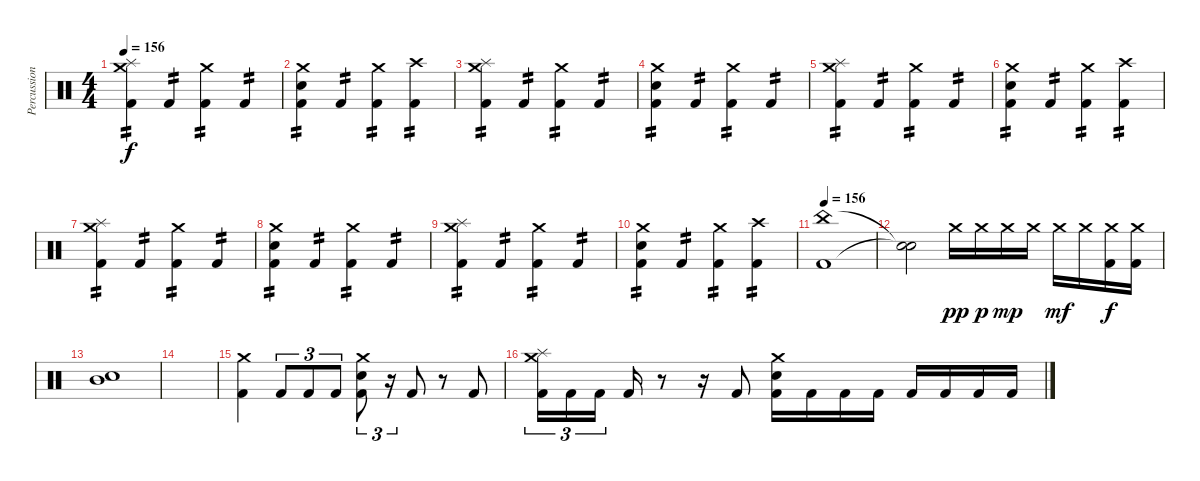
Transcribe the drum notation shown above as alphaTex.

\track ("Percussion" "Percussion") {instrument percussion}
\staff {score}
\articulation defaults
\ts (4 4)
\tempo 156
\clef neutral
\ks c
("Crash medium (hit)" "Splash (hit)" "Kick (hit) 2").4{tp 2 dy f} "Kick (hit) 2".4{tp 2} ("Crash medium (hit)" "Kick (hit) 2").4{tp 2} "Kick (hit) 2".4{tp 2} |
("Crash medium (hit)" "Snare (hit) 2" "Kick (hit) 2").4{tp 2} "Kick (hit) 2".4{tp 2} ("Crash medium (hit)" "Kick (hit) 2").4{tp 2} ("Crash high (hit)" "Kick (hit) 2").4{tp 2} |
("Crash medium (hit)" "Splash (hit)" "Kick (hit) 2").4{tp 2} "Kick (hit) 2".4{tp 2} ("Crash medium (hit)" "Kick (hit) 2").4{tp 2} "Kick (hit) 2".4{tp 2} |
("Crash medium (hit)" "Snare (hit) 2" "Kick (hit) 2").4{tp 2} "Kick (hit) 2".4{tp 2} ("Crash medium (hit)" "Kick (hit) 2").4{tp 2} "Kick (hit) 2".4{tp 2} |
("Crash medium (hit)" "Splash (hit)" "Kick (hit) 2").4{tp 2} "Kick (hit) 2".4{tp 2} ("Crash medium (hit)" "Kick (hit) 2").4{tp 2} "Kick (hit) 2".4{tp 2} |
("Crash medium (hit)" "Snare (hit) 2" "Kick (hit) 2").4{tp 2} "Kick (hit) 2".4{tp 2} ("Crash medium (hit)" "Kick (hit) 2").4{tp 2} ("Crash high (hit)" "Kick (hit) 2").4{tp 2} |
("Crash medium (hit)" "Splash (hit)" "Kick (hit) 2").4{tp 2} "Kick (hit) 2".4{tp 2} ("Crash medium (hit)" "Kick (hit) 2").4{tp 2} "Kick (hit) 2".4{tp 2} |
("Crash medium (hit)" "Snare (hit) 2" "Kick (hit) 2").4{tp 2} "Kick (hit) 2".4{tp 2} ("Crash medium (hit)" "Kick (hit) 2").4{tp 2} "Kick (hit) 2".4{tp 2} |
("Crash medium (hit)" "Splash (hit)" "Kick (hit) 2").4{tp 2} "Kick (hit) 2".4{tp 2} ("Crash medium (hit)" "Kick (hit) 2").4{tp 2} "Kick (hit) 2".4{tp 2} |
("Crash medium (hit)" "Snare (hit) 2" "Kick (hit) 2").4{tp 2} "Kick (hit) 2".4{tp 2} ("Crash medium (hit)" "Kick (hit) 2").4{tp 2} ("Crash high (hit)" "Kick (hit) 2").4{tp 2} |
\tempo 156
("China (hit)" "Kick (hit) 2").1 |
("Snare (hit)"{t} "Snare (hit)"{t}).2 "Crash medium (hit)".16{dy pp} "Crash medium (hit)".16{dy p} "Crash medium (hit)".16{dy mp} "Crash medium (hit)".16 "Crash medium (hit)".16{dy mf} "Crash medium (hit)".16 ("Crash medium (hit)" "Kick (hit) 2").16{dy f} ("Crash medium (hit)" "Kick (hit) 2").16 |
("Mid Tom (hit)" "Snare (hit) 2").1 |
|
("Crash medium (hit)" "Kick (hit) 2").4 "Kick (hit) 2".8{tu (3 2)} "Kick (hit) 2".8{tu (3 2)} "Kick (hit) 2".8{tu (3 2)} ("Crash medium (hit)" "Snare (hit) 2" "Kick (hit) 2").8{tu (3 2)} r.16{tu (3 2)} "Kick (hit) 2".8 r.8 "Kick (hit) 2".8 |
("Crash medium (hit)" "Splash (hit)" "Kick (hit) 2").16{tu (3 2)} "Kick (hit) 2".16{tu (3 2)} "Kick (hit) 2".16{tu (3 2) beam splitsecondary} "Kick (hit) 2".16 r.8 r.16 "Kick (hit) 2".8 ("Crash medium (hit)" "Snare (hit) 2" "Kick (hit) 2").16 "Kick (hit) 2".16 "Kick (hit) 2".16 "Kick (hit) 2".16 "Kick (hit) 2".16 "Kick (hit) 2".16 "Kick (hit) 2".16 "Kick (hit) 2".16
